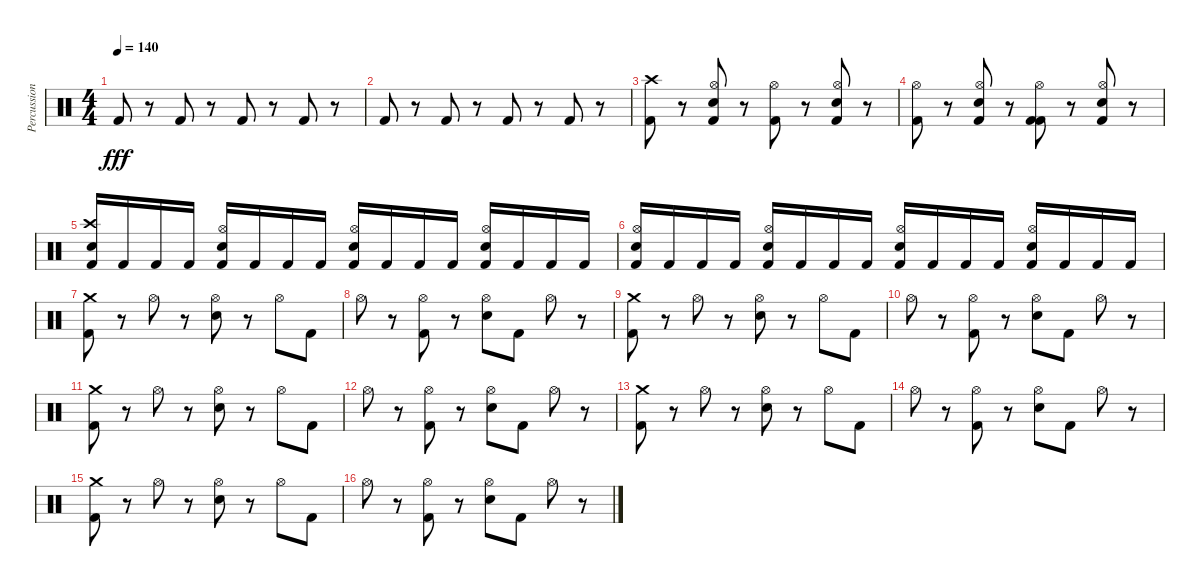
\track ("Percussion" "Percussion") {instrument percussion}
\staff {score}
\articulation defaults
\ts (4 4)
\tempo 140
\clef neutral
\ks c "Kick (hit) 2".8{dy fff}
r.8 "Kick (hit) 2".8 r.8 "Kick (hit) 2".8 r.8 "Kick (hit) 2".8 r.8 |
"Kick (hit) 2".8 r.8 "Kick (hit) 2".8 r.8 "Kick (hit) 2".8 r.8 "Kick (hit) 2".8 r.8 |
("Crash high (hit)" "Kick (hit) 2").8 r.8 ("Kick (hit) 2" "Hi-Hat (open)" "Electric Snare (hit)").8 r.8 ("Hi-Hat (open)" "Kick (hit) 2").8 r.8 ("Kick (hit) 2" "Hi-Hat (open)" "Electric Snare (hit)").8 r.8 |
("Hi-Hat (open)" "Kick (hit) 2").8 r.8 ("Kick (hit) 2" "Hi-Hat (open)" "Electric Snare (hit)").8 r.8 ("Kick (hit) 2" "Hi-Hat (open)" "Kick (hit) 2").8 r.8 ("Kick (hit) 2" "Hi-Hat (open)" "Electric Snare (hit)").8 r.8 |
("Electric Snare (hit)" "Crash high (hit)" "Kick (hit) 2").16 "Kick (hit) 2".16 "Kick (hit) 2".16 "Kick (hit) 2".16 ("Electric Snare (hit)" "Hi-Hat (open)" "Kick (hit) 2").16 "Kick (hit) 2".16 "Kick (hit) 2".16 "Kick (hit) 2".16 ("Electric Snare (hit)" "Hi-Hat (open)" "Kick (hit) 2").16 "Kick (hit) 2".16 "Kick (hit) 2".16 "Kick (hit) 2".16 ("Hi-Hat (open)" "Electric Snare (hit)" "Kick (hit) 2").16 "Kick (hit) 2".16 "Kick (hit) 2".16 "Kick (hit) 2".16 |
("Electric Snare (hit)" "Hi-Hat (open)" "Kick (hit) 2").16 "Kick (hit) 2".16 "Kick (hit) 2".16 "Kick (hit) 2".16 ("Electric Snare (hit)" "Hi-Hat (open)" "Kick (hit) 2").16 "Kick (hit) 2".16 "Kick (hit) 2".16 "Kick (hit) 2".16 ("Electric Snare (hit)" "Hi-Hat (open)" "Kick (hit) 2").16 "Kick (hit) 2".16 "Kick (hit) 2".16 "Kick (hit) 2".16 ("Hi-Hat (open)" "Electric Snare (hit)" "Kick (hit) 2").16 "Kick (hit) 2".16 "Kick (hit) 2".16 "Kick (hit) 2".16 |
("Crash medium (hit)" "Kick (hit) 2").8 r.8 "Hi-Hat (open)".8 r.8 ("Hi-Hat (open)" "Electric Snare (hit)").8 r.8 "Hi-Hat (open)".8 "Kick (hit) 2".8 |
"Hi-Hat (open)".8 r.8 ("Hi-Hat (open)" "Kick (hit) 2").8 r.8 ("Hi-Hat (open)" "Electric Snare (hit)").8 "Kick (hit) 2".8 "Hi-Hat (open)".8 r.8 |
("Crash medium (hit)" "Kick (hit) 2").8 r.8 "Hi-Hat (open)".8 r.8 ("Hi-Hat (open)" "Electric Snare (hit)").8 r.8 "Hi-Hat (open)".8 "Kick (hit) 2".8 |
"Hi-Hat (open)".8 r.8 ("Hi-Hat (open)" "Kick (hit) 2").8 r.8 ("Hi-Hat (open)" "Electric Snare (hit)").8 "Kick (hit) 2".8 "Hi-Hat (open)".8 r.8 |
("Crash medium (hit)" "Kick (hit) 2").8 r.8 "Hi-Hat (open)".8 r.8 ("Hi-Hat (open)" "Electric Snare (hit)").8 r.8 "Hi-Hat (open)".8 "Kick (hit) 2".8 |
"Hi-Hat (open)".8 r.8 ("Hi-Hat (open)" "Kick (hit) 2").8 r.8 ("Hi-Hat (open)" "Electric Snare (hit)").8 "Kick (hit) 2".8 "Hi-Hat (open)".8 r.8 |
("Crash medium (hit)" "Kick (hit) 2").8 r.8 "Hi-Hat (open)".8 r.8 ("Hi-Hat (open)" "Electric Snare (hit)").8 r.8 "Hi-Hat (open)".8 "Kick (hit) 2".8 |
"Hi-Hat (open)".8 r.8 ("Hi-Hat (open)" "Kick (hit) 2").8 r.8 ("Hi-Hat (open)" "Electric Snare (hit)").8 "Kick (hit) 2".8 "Hi-Hat (open)".8 r.8 |
("Crash medium (hit)" "Kick (hit) 2").8 r.8 "Hi-Hat (open)".8 r.8 ("Hi-Hat (open)" "Electric Snare (hit)").8 r.8 "Hi-Hat (open)".8 "Kick (hit) 2".8 |
"Hi-Hat (open)".8 r.8 ("Hi-Hat (open)" "Kick (hit) 2").8 r.8 ("Hi-Hat (open)" "Electric Snare (hit)").8 "Kick (hit) 2".8 "Hi-Hat (open)".8 r.8
